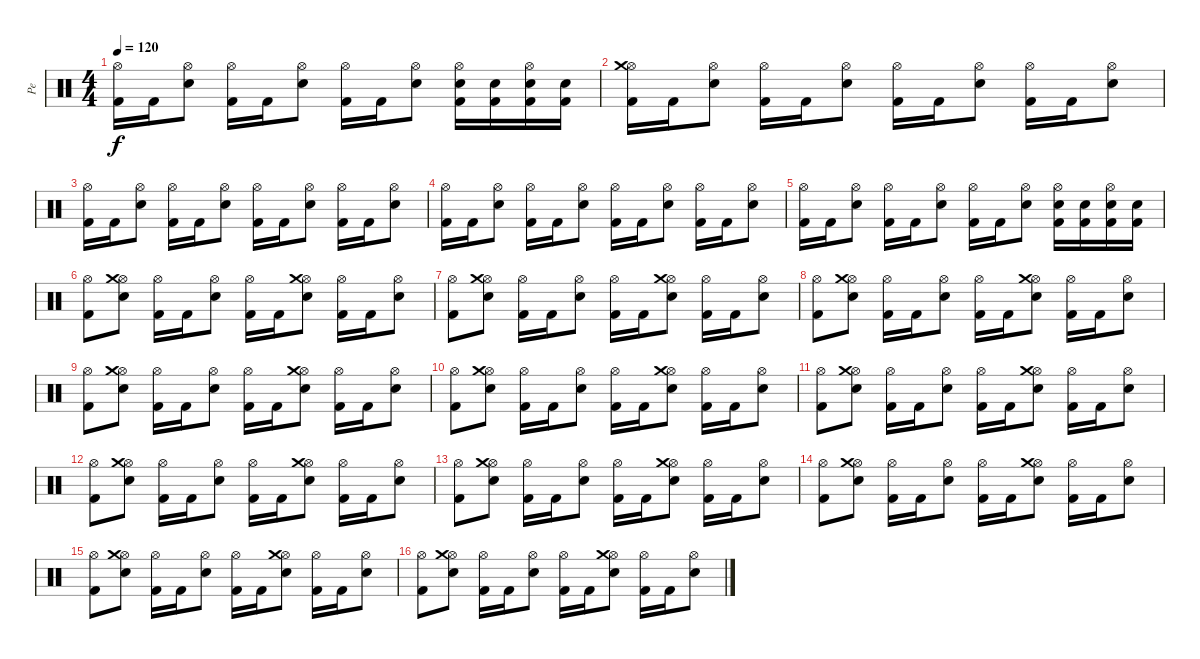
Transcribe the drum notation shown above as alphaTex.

\track ("Pe" "Pe") {instrument percussion}
\staff {score}
\articulation defaults
\ts (4 4)
\tempo 120
\clef neutral
\ks c
("Hi-Hat (open)" "Kick (hit) 2").16{dy f} "Kick (hit) 2".16 ("Hi-Hat (open)" "Electric Snare (hit)").8 ("Hi-Hat (open)" "Kick (hit) 2").16 "Kick (hit) 2".16 ("Hi-Hat (open)" "Electric Snare (hit)").8 ("Hi-Hat (open)" "Kick (hit) 2").16 "Kick (hit) 2".16 ("Hi-Hat (open)" "Electric Snare (hit)").8 ("Hi-Hat (open)" "Electric Snare (hit)" "Kick (hit) 2").16 ("Electric Snare (hit)" "Kick (hit) 2").16 ("Hi-Hat (open)" "Electric Snare (hit)" "Kick (hit) 2").16 ("Electric Snare (hit)" "Kick (hit) 2").16 |
("Hi-Hat (open)" "Crash medium (hit)" "Kick (hit) 2").16 "Kick (hit) 2".16 ("Hi-Hat (open)" "Electric Snare (hit)").8 ("Hi-Hat (open)" "Kick (hit) 2").16 "Kick (hit) 2".16 ("Hi-Hat (open)" "Electric Snare (hit)").8 ("Hi-Hat (open)" "Kick (hit) 2").16 "Kick (hit) 2".16 ("Hi-Hat (open)" "Electric Snare (hit)").8 ("Hi-Hat (open)" "Kick (hit) 2").16 "Kick (hit) 2".16 ("Hi-Hat (open)" "Electric Snare (hit)").8 |
("Hi-Hat (open)" "Kick (hit) 2").16 "Kick (hit) 2".16 ("Hi-Hat (open)" "Electric Snare (hit)").8 ("Hi-Hat (open)" "Kick (hit) 2").16 "Kick (hit) 2".16 ("Hi-Hat (open)" "Electric Snare (hit)").8 ("Hi-Hat (open)" "Kick (hit) 2").16 "Kick (hit) 2".16 ("Hi-Hat (open)" "Electric Snare (hit)").8 ("Hi-Hat (open)" "Kick (hit) 2").16 "Kick (hit) 2".16 ("Hi-Hat (open)" "Electric Snare (hit)").8 |
("Hi-Hat (open)" "Kick (hit) 2").16 "Kick (hit) 2".16 ("Hi-Hat (open)" "Electric Snare (hit)").8 ("Hi-Hat (open)" "Kick (hit) 2").16 "Kick (hit) 2".16 ("Hi-Hat (open)" "Electric Snare (hit)").8 ("Hi-Hat (open)" "Kick (hit) 2").16 "Kick (hit) 2".16 ("Hi-Hat (open)" "Electric Snare (hit)").8 ("Hi-Hat (open)" "Kick (hit) 2").16 "Kick (hit) 2".16 ("Hi-Hat (open)" "Electric Snare (hit)").8 |
("Hi-Hat (open)" "Kick (hit) 2").16 "Kick (hit) 2".16 ("Hi-Hat (open)" "Electric Snare (hit)").8 ("Hi-Hat (open)" "Kick (hit) 2").16 "Kick (hit) 2".16 ("Hi-Hat (open)" "Electric Snare (hit)").8 ("Hi-Hat (open)" "Kick (hit) 2").16 "Kick (hit) 2".16 ("Hi-Hat (open)" "Electric Snare (hit)").8 ("Hi-Hat (open)" "Electric Snare (hit)" "Kick (hit) 2").16 ("Electric Snare (hit)" "Kick (hit) 2").16 ("Hi-Hat (open)" "Electric Snare (hit)" "Kick (hit) 2").16 ("Electric Snare (hit)" "Kick (hit) 2").16 |
("Hi-Hat (open)" "Kick (hit) 2").8 ("Hi-Hat (open)" "Crash medium (hit)" "Electric Snare (hit)").8 ("Hi-Hat (open)" "Kick (hit) 2").16 "Kick (hit) 2".16 ("Hi-Hat (open)" "Electric Snare (hit)").8 ("Hi-Hat (open)" "Kick (hit) 2").16 "Kick (hit) 2".16 ("Hi-Hat (open)" "Crash medium (hit)" "Electric Snare (hit)").8 ("Hi-Hat (open)" "Kick (hit) 2").16 "Kick (hit) 2".16 ("Hi-Hat (open)" "Electric Snare (hit)").8 |
("Hi-Hat (open)" "Kick (hit) 2").8 ("Hi-Hat (open)" "Crash medium (hit)" "Electric Snare (hit)").8 ("Hi-Hat (open)" "Kick (hit) 2").16 "Kick (hit) 2".16 ("Hi-Hat (open)" "Electric Snare (hit)").8 ("Hi-Hat (open)" "Kick (hit) 2").16 "Kick (hit) 2".16 ("Hi-Hat (open)" "Crash medium (hit)" "Electric Snare (hit)").8 ("Hi-Hat (open)" "Kick (hit) 2").16 "Kick (hit) 2".16 ("Hi-Hat (open)" "Electric Snare (hit)").8 |
("Hi-Hat (open)" "Kick (hit) 2").8 ("Hi-Hat (open)" "Crash medium (hit)" "Electric Snare (hit)").8 ("Hi-Hat (open)" "Kick (hit) 2").16 "Kick (hit) 2".16 ("Hi-Hat (open)" "Electric Snare (hit)").8 ("Hi-Hat (open)" "Kick (hit) 2").16 "Kick (hit) 2".16 ("Hi-Hat (open)" "Crash medium (hit)" "Electric Snare (hit)").8 ("Hi-Hat (open)" "Kick (hit) 2").16 "Kick (hit) 2".16 ("Hi-Hat (open)" "Electric Snare (hit)").8 |
("Hi-Hat (open)" "Kick (hit) 2").8 ("Hi-Hat (open)" "Crash medium (hit)" "Electric Snare (hit)").8 ("Hi-Hat (open)" "Kick (hit) 2").16 "Kick (hit) 2".16 ("Hi-Hat (open)" "Electric Snare (hit)").8 ("Hi-Hat (open)" "Kick (hit) 2").16 "Kick (hit) 2".16 ("Hi-Hat (open)" "Crash medium (hit)" "Electric Snare (hit)").8 ("Hi-Hat (open)" "Kick (hit) 2").16 "Kick (hit) 2".16 ("Hi-Hat (open)" "Electric Snare (hit)").8 |
("Hi-Hat (open)" "Kick (hit) 2").8 ("Hi-Hat (open)" "Crash medium (hit)" "Electric Snare (hit)").8 ("Hi-Hat (open)" "Kick (hit) 2").16 "Kick (hit) 2".16 ("Hi-Hat (open)" "Electric Snare (hit)").8 ("Hi-Hat (open)" "Kick (hit) 2").16 "Kick (hit) 2".16 ("Hi-Hat (open)" "Crash medium (hit)" "Electric Snare (hit)").8 ("Hi-Hat (open)" "Kick (hit) 2").16 "Kick (hit) 2".16 ("Hi-Hat (open)" "Electric Snare (hit)").8 |
("Hi-Hat (open)" "Kick (hit) 2").8 ("Hi-Hat (open)" "Crash medium (hit)" "Electric Snare (hit)").8 ("Hi-Hat (open)" "Kick (hit) 2").16 "Kick (hit) 2".16 ("Hi-Hat (open)" "Electric Snare (hit)").8 ("Hi-Hat (open)" "Kick (hit) 2").16 "Kick (hit) 2".16 ("Hi-Hat (open)" "Crash medium (hit)" "Electric Snare (hit)").8 ("Hi-Hat (open)" "Kick (hit) 2").16 "Kick (hit) 2".16 ("Hi-Hat (open)" "Electric Snare (hit)").8 |
("Hi-Hat (open)" "Kick (hit) 2").8 ("Hi-Hat (open)" "Crash medium (hit)" "Electric Snare (hit)").8 ("Hi-Hat (open)" "Kick (hit) 2").16 "Kick (hit) 2".16 ("Hi-Hat (open)" "Electric Snare (hit)").8 ("Hi-Hat (open)" "Kick (hit) 2").16 "Kick (hit) 2".16 ("Hi-Hat (open)" "Crash medium (hit)" "Electric Snare (hit)").8 ("Hi-Hat (open)" "Kick (hit) 2").16 "Kick (hit) 2".16 ("Hi-Hat (open)" "Electric Snare (hit)").8 |
("Hi-Hat (open)" "Kick (hit) 2").8 ("Hi-Hat (open)" "Crash medium (hit)" "Electric Snare (hit)").8 ("Hi-Hat (open)" "Kick (hit) 2").16 "Kick (hit) 2".16 ("Hi-Hat (open)" "Electric Snare (hit)").8 ("Hi-Hat (open)" "Kick (hit) 2").16 "Kick (hit) 2".16 ("Hi-Hat (open)" "Crash medium (hit)" "Electric Snare (hit)").8 ("Hi-Hat (open)" "Kick (hit) 2").16 "Kick (hit) 2".16 ("Hi-Hat (open)" "Electric Snare (hit)").8 |
("Hi-Hat (open)" "Kick (hit) 2").8 ("Hi-Hat (open)" "Crash medium (hit)" "Electric Snare (hit)").8 ("Hi-Hat (open)" "Kick (hit) 2").16 "Kick (hit) 2".16 ("Hi-Hat (open)" "Electric Snare (hit)").8 ("Hi-Hat (open)" "Kick (hit) 2").16 "Kick (hit) 2".16 ("Hi-Hat (open)" "Crash medium (hit)" "Electric Snare (hit)").8 ("Hi-Hat (open)" "Kick (hit) 2").16 "Kick (hit) 2".16 ("Hi-Hat (open)" "Electric Snare (hit)").8 |
("Hi-Hat (open)" "Kick (hit) 2").8 ("Hi-Hat (open)" "Crash medium (hit)" "Electric Snare (hit)").8 ("Hi-Hat (open)" "Kick (hit) 2").16 "Kick (hit) 2".16 ("Hi-Hat (open)" "Electric Snare (hit)").8 ("Hi-Hat (open)" "Kick (hit) 2").16 "Kick (hit) 2".16 ("Hi-Hat (open)" "Crash medium (hit)" "Electric Snare (hit)").8 ("Hi-Hat (open)" "Kick (hit) 2").16 "Kick (hit) 2".16 ("Hi-Hat (open)" "Electric Snare (hit)").8 |
("Hi-Hat (open)" "Kick (hit) 2").8 ("Hi-Hat (open)" "Crash medium (hit)" "Electric Snare (hit)").8 ("Hi-Hat (open)" "Kick (hit) 2").16 "Kick (hit) 2".16 ("Hi-Hat (open)" "Electric Snare (hit)").8 ("Hi-Hat (open)" "Kick (hit) 2").16 "Kick (hit) 2".16 ("Hi-Hat (open)" "Crash medium (hit)" "Electric Snare (hit)").8 ("Hi-Hat (open)" "Kick (hit) 2").16 "Kick (hit) 2".16 ("Hi-Hat (open)" "Electric Snare (hit)").8
